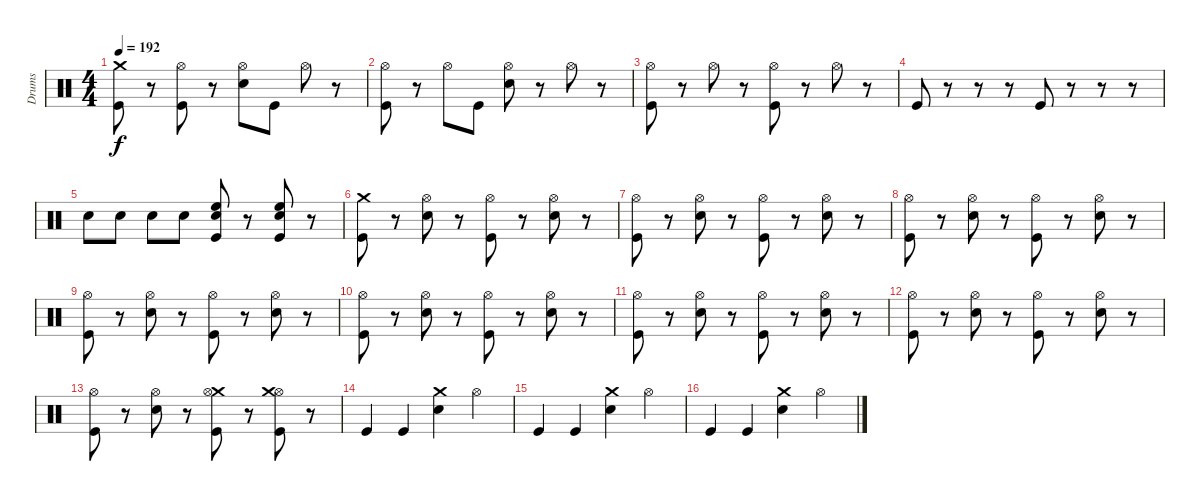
\track ("Drums" "Drums") {instrument percussion}
\staff {score}
\articulation defaults
\ts (4 4)
\tempo 192
\clef neutral
\ks c
("Kick (hit)" "Crash medium (hit)").8{dy f} r.8 ("Kick (hit)" "Hi-Hat (open)").8 r.8 ("Snare (hit) 2" "Hi-Hat (open)").8 "Kick (hit)".8 "Hi-Hat (open)".8 r.8 |
("Kick (hit)" "Hi-Hat (open)").8 r.8 "Hi-Hat (open)".8 "Kick (hit)".8 ("Snare (hit) 2" "Hi-Hat (open)").8 r.8 "Hi-Hat (open)".8 r.8 |
("Kick (hit)" "Hi-Hat (open)").8 r.8 "Hi-Hat (open)".8 r.8 ("Kick (hit)" "Hi-Hat (open)").8 r.8 "Hi-Hat (open)".8 r.8 |
"Kick (hit)".8 r.8 r.8 r.8 "Kick (hit)".8 r.8 r.8 r.8 |
"Snare (hit) 2".8 "Snare (hit) 2".8 "Snare (hit) 2".8 "Snare (hit) 2".8 ("Snare (hit) 2" "Kick (hit)" "High Floor Tom (hit)").8 r.8 ("Snare (hit) 2" "Kick (hit)" "High Floor Tom (hit)").8 r.8 |
("Kick (hit)" "Crash medium (hit)").8 r.8 ("Snare (hit) 2" "Hi-Hat (open)").8 r.8 ("Kick (hit)" "Hi-Hat (open)").8 r.8 ("Snare (hit) 2" "Hi-Hat (open)").8 r.8 |
("Kick (hit)" "Hi-Hat (open)").8 r.8 ("Snare (hit) 2" "Hi-Hat (open)").8 r.8 ("Kick (hit)" "Hi-Hat (open)").8 r.8 ("Snare (hit) 2" "Hi-Hat (open)").8 r.8 |
("Kick (hit)" "Hi-Hat (open)").8 r.8 ("Snare (hit) 2" "Hi-Hat (open)").8 r.8 ("Kick (hit)" "Hi-Hat (open)").8 r.8 ("Snare (hit) 2" "Hi-Hat (open)").8 r.8 |
("Kick (hit)" "Hi-Hat (open)").8 r.8 ("Snare (hit) 2" "Hi-Hat (open)").8 r.8 ("Kick (hit)" "Hi-Hat (open)").8 r.8 ("Snare (hit) 2" "Hi-Hat (open)").8 r.8 |
("Kick (hit)" "Hi-Hat (open)").8 r.8 ("Snare (hit) 2" "Hi-Hat (open)").8 r.8 ("Kick (hit)" "Hi-Hat (open)").8 r.8 ("Snare (hit) 2" "Hi-Hat (open)").8 r.8 |
("Kick (hit)" "Hi-Hat (open)").8 r.8 ("Snare (hit) 2" "Hi-Hat (open)").8 r.8 ("Kick (hit)" "Hi-Hat (open)").8 r.8 ("Snare (hit) 2" "Hi-Hat (open)").8 r.8 |
("Kick (hit)" "Hi-Hat (open)").8 r.8 ("Snare (hit) 2" "Hi-Hat (open)").8 r.8 ("Kick (hit)" "Hi-Hat (open)").8 r.8 ("Snare (hit) 2" "Hi-Hat (open)").8 r.8 |
("Kick (hit)" "Hi-Hat (open)").8 r.8 ("Snare (hit) 2" "Hi-Hat (open)").8 r.8 ("Kick (hit)" "Crash medium (hit)" "Hi-Hat (open)").8 r.8 ("Kick (hit)" "Hi-Hat (open)" "Crash medium (hit)").8 r.8 |
"Kick (hit)".4 "Kick (hit)".4 ("Snare (hit) 2" "Crash medium (hit)").4 "Hi-Hat (open)".4 |
"Kick (hit)".4 "Kick (hit)".4 ("Snare (hit) 2" "Crash medium (hit)").4 "Hi-Hat (open)".4 |
"Kick (hit)".4 "Kick (hit)".4 ("Snare (hit) 2" "Crash medium (hit)").4 "Hi-Hat (open)".4
